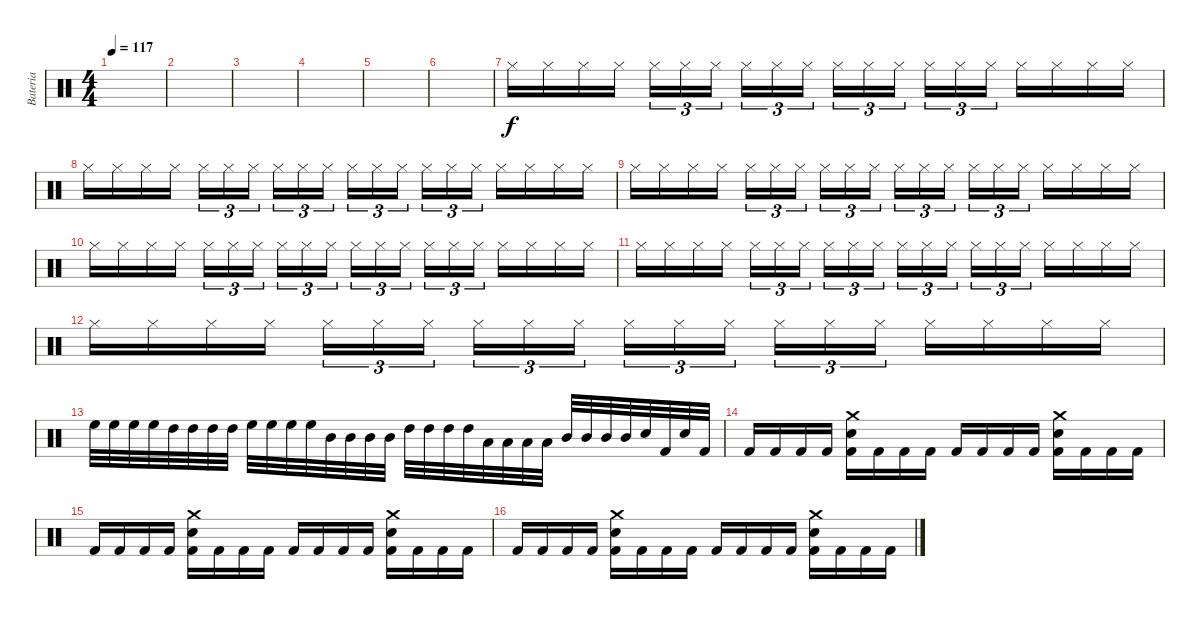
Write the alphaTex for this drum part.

\track ("Bateria" "Bateria") {instrument percussion}
\staff {score}
\articulation defaults
\ts (4 4)
\tempo 117
\clef neutral
\ks c
|
|
|
|
|
|
"Hi-Hat (closed)".16{dy f} "Hi-Hat (closed)".16 "Hi-Hat (closed)".16 "Hi-Hat (closed)".16 "Hi-Hat (closed)".16{tu (3 2)} "Hi-Hat (closed)".16{tu (3 2)} "Hi-Hat (closed)".16{tu (3 2)} "Hi-Hat (closed)".16{tu (3 2)} "Hi-Hat (closed)".16{tu (3 2)} "Hi-Hat (closed)".16{tu (3 2)} "Hi-Hat (closed)".16{tu (3 2)} "Hi-Hat (closed)".16{tu (3 2)} "Hi-Hat (closed)".16{tu (3 2)} "Hi-Hat (closed)".16{tu (3 2)} "Hi-Hat (closed)".16{tu (3 2)} "Hi-Hat (closed)".16{tu (3 2)} "Hi-Hat (closed)".16 "Hi-Hat (closed)".16 "Hi-Hat (closed)".16 "Hi-Hat (closed)".16 |
"Hi-Hat (closed)".16 "Hi-Hat (closed)".16 "Hi-Hat (closed)".16 "Hi-Hat (closed)".16 "Hi-Hat (closed)".16{tu (3 2)} "Hi-Hat (closed)".16{tu (3 2)} "Hi-Hat (closed)".16{tu (3 2)} "Hi-Hat (closed)".16{tu (3 2)} "Hi-Hat (closed)".16{tu (3 2)} "Hi-Hat (closed)".16{tu (3 2)} "Hi-Hat (closed)".16{tu (3 2)} "Hi-Hat (closed)".16{tu (3 2)} "Hi-Hat (closed)".16{tu (3 2)} "Hi-Hat (closed)".16{tu (3 2)} "Hi-Hat (closed)".16{tu (3 2)} "Hi-Hat (closed)".16{tu (3 2)} "Hi-Hat (closed)".16 "Hi-Hat (closed)".16 "Hi-Hat (closed)".16 "Hi-Hat (closed)".16 |
"Hi-Hat (closed)".16 "Hi-Hat (closed)".16 "Hi-Hat (closed)".16 "Hi-Hat (closed)".16 "Hi-Hat (closed)".16{tu (3 2)} "Hi-Hat (closed)".16{tu (3 2)} "Hi-Hat (closed)".16{tu (3 2)} "Hi-Hat (closed)".16{tu (3 2)} "Hi-Hat (closed)".16{tu (3 2)} "Hi-Hat (closed)".16{tu (3 2)} "Hi-Hat (closed)".16{tu (3 2)} "Hi-Hat (closed)".16{tu (3 2)} "Hi-Hat (closed)".16{tu (3 2)} "Hi-Hat (closed)".16{tu (3 2)} "Hi-Hat (closed)".16{tu (3 2)} "Hi-Hat (closed)".16{tu (3 2)} "Hi-Hat (closed)".16 "Hi-Hat (closed)".16 "Hi-Hat (closed)".16 "Hi-Hat (closed)".16 |
"Hi-Hat (closed)".16 "Hi-Hat (closed)".16 "Hi-Hat (closed)".16 "Hi-Hat (closed)".16 "Hi-Hat (closed)".16{tu (3 2)} "Hi-Hat (closed)".16{tu (3 2)} "Hi-Hat (closed)".16{tu (3 2)} "Hi-Hat (closed)".16{tu (3 2)} "Hi-Hat (closed)".16{tu (3 2)} "Hi-Hat (closed)".16{tu (3 2)} "Hi-Hat (closed)".16{tu (3 2)} "Hi-Hat (closed)".16{tu (3 2)} "Hi-Hat (closed)".16{tu (3 2)} "Hi-Hat (closed)".16{tu (3 2)} "Hi-Hat (closed)".16{tu (3 2)} "Hi-Hat (closed)".16{tu (3 2)} "Hi-Hat (closed)".16 "Hi-Hat (closed)".16 "Hi-Hat (closed)".16 "Hi-Hat (closed)".16 |
"Hi-Hat (closed)".16 "Hi-Hat (closed)".16 "Hi-Hat (closed)".16 "Hi-Hat (closed)".16 "Hi-Hat (closed)".16{tu (3 2)} "Hi-Hat (closed)".16{tu (3 2)} "Hi-Hat (closed)".16{tu (3 2)} "Hi-Hat (closed)".16{tu (3 2)} "Hi-Hat (closed)".16{tu (3 2)} "Hi-Hat (closed)".16{tu (3 2)} "Hi-Hat (closed)".16{tu (3 2)} "Hi-Hat (closed)".16{tu (3 2)} "Hi-Hat (closed)".16{tu (3 2)} "Hi-Hat (closed)".16{tu (3 2)} "Hi-Hat (closed)".16{tu (3 2)} "Hi-Hat (closed)".16{tu (3 2)} "Hi-Hat (closed)".16 "Hi-Hat (closed)".16 "Hi-Hat (closed)".16 "Hi-Hat (closed)".16 |
"Hi-Hat (closed)".16 "Hi-Hat (closed)".16 "Hi-Hat (closed)".16 "Hi-Hat (closed)".16 "Hi-Hat (closed)".16{tu (3 2)} "Hi-Hat (closed)".16{tu (3 2)} "Hi-Hat (closed)".16{tu (3 2)} "Hi-Hat (closed)".16{tu (3 2)} "Hi-Hat (closed)".16{tu (3 2)} "Hi-Hat (closed)".16{tu (3 2)} "Hi-Hat (closed)".16{tu (3 2)} "Hi-Hat (closed)".16{tu (3 2)} "Hi-Hat (closed)".16{tu (3 2)} "Hi-Hat (closed)".16{tu (3 2)} "Hi-Hat (closed)".16{tu (3 2)} "Hi-Hat (closed)".16{tu (3 2)} "Hi-Hat (closed)".16 "Hi-Hat (closed)".16 "Hi-Hat (closed)".16 "Hi-Hat (closed)".16 |
"High Floor Tom (hit)".32 "High Floor Tom (hit)".32 "High Floor Tom (hit)".32 "High Floor Tom (hit)".32 "High Tom (hit)".32 "High Tom (hit)".32 "High Tom (hit)".32 "High Tom (hit)".32 "High Floor Tom (hit)".32 "High Floor Tom (hit)".32 "High Floor Tom (hit)".32 "High Floor Tom (hit)".32 "Mid Tom (hit)".32 "Mid Tom (hit)".32 "Mid Tom (hit)".32 "Mid Tom (hit)".32 "High Tom (hit)".32 "High Tom (hit)".32 "High Tom (hit)".32 "High Tom (hit)".32 "Low Tom (hit)".32 "Low Tom (hit)".32 "Low Tom (hit)".32 "Low Tom (hit)".32 "Mid Tom (hit)".32 "Mid Tom (hit)".32 "Mid Tom (hit)".32 "Mid Tom (hit)".32 "Snare (hit) 2".32 "Kick (hit) 2".32 "Snare (hit) 2".32 "Kick (hit) 2".32 |
"Kick (hit) 2".16 "Kick (hit) 2".16 "Kick (hit) 2".16 "Kick (hit) 2".16 ("Snare (hit) 2" "Crash medium (hit)" "Kick (hit) 2").16 "Kick (hit) 2".16 "Kick (hit) 2".16 "Kick (hit) 2".16 "Kick (hit) 2".16 "Kick (hit) 2".16 "Kick (hit) 2".16 "Kick (hit) 2".16 ("Snare (hit) 2" "Crash medium (hit)" "Kick (hit) 2").16 "Kick (hit) 2".16 "Kick (hit) 2".16 "Kick (hit) 2".16 |
"Kick (hit) 2".16 "Kick (hit) 2".16 "Kick (hit) 2".16 "Kick (hit) 2".16 ("Snare (hit) 2" "Crash medium (hit)" "Kick (hit) 2").16 "Kick (hit) 2".16 "Kick (hit) 2".16 "Kick (hit) 2".16 "Kick (hit) 2".16 "Kick (hit) 2".16 "Kick (hit) 2".16 "Kick (hit) 2".16 ("Snare (hit) 2" "Crash medium (hit)" "Kick (hit) 2").16 "Kick (hit) 2".16 "Kick (hit) 2".16 "Kick (hit) 2".16 |
"Kick (hit) 2".16 "Kick (hit) 2".16 "Kick (hit) 2".16 "Kick (hit) 2".16 ("Snare (hit) 2" "Crash medium (hit)" "Kick (hit) 2").16 "Kick (hit) 2".16 "Kick (hit) 2".16 "Kick (hit) 2".16 "Kick (hit) 2".16 "Kick (hit) 2".16 "Kick (hit) 2".16 "Kick (hit) 2".16 ("Snare (hit) 2" "Crash medium (hit)" "Kick (hit) 2").16 "Kick (hit) 2".16 "Kick (hit) 2".16 "Kick (hit) 2".16
